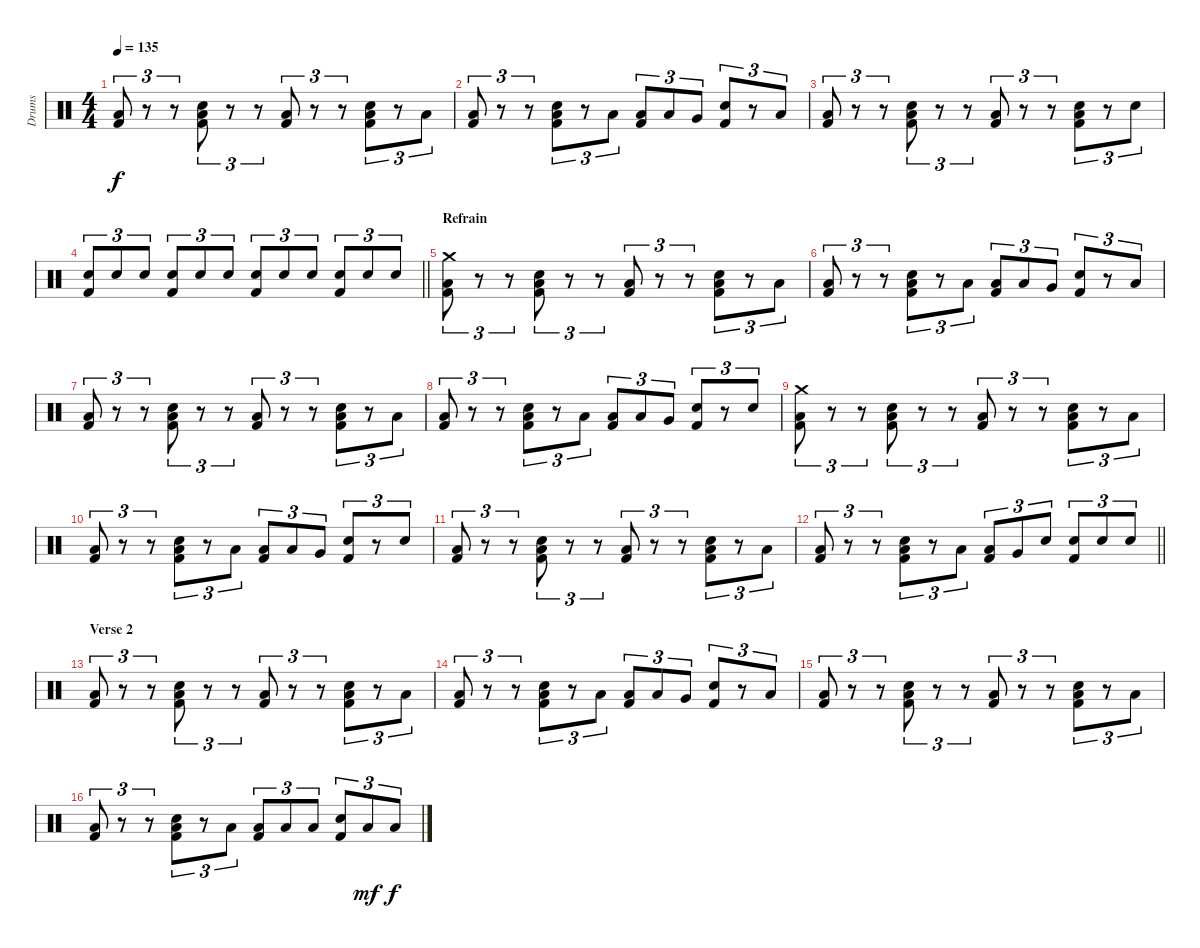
\track ("Drums" "Drums") {instrument percussion}
\staff {score}
\articulation defaults
\ts (4 4)
\tempo 135
\clef neutral
\ks c
("Low Floor Tom (hit)" "Kick (hit) 2").8{tu (3 2) dy f} r.8{tu (3 2)} r.8{tu (3 2)} ("Electric Snare (hit)" "Low Floor Tom (hit)" "Kick (hit) 2").8{tu (3 2)} r.8{tu (3 2)} r.8{tu (3 2)} ("Low Floor Tom (hit)" "Kick (hit) 2").8{tu (3 2)} r.8{tu (3 2)} r.8{tu (3 2)} ("Electric Snare (hit)" "Low Floor Tom (hit)" "Kick (hit) 2").8{tu (3 2)} r.8{tu (3 2)} "Low Floor Tom (hit)".8{tu (3 2)} |
("Low Floor Tom (hit)" "Kick (hit) 2").8{tu (3 2)} r.8{tu (3 2)} r.8{tu (3 2)} ("Electric Snare (hit)" "Low Floor Tom (hit)" "Kick (hit) 2").8{tu (3 2)} r.8{tu (3 2)} "Low Floor Tom (hit)".8{tu (3 2)} ("Low Floor Tom (hit)" "Kick (hit) 2").8{tu (3 2)} "Low Tom (hit)".8{tu (3 2)} "Very Low Tom (hit)".8{tu (3 2)} ("Electric Snare (hit)" "Kick (hit) 2").8{tu (3 2)} r.8{tu (3 2)} "Low Floor Tom (hit)".8{tu (3 2)} |
("Low Floor Tom (hit)" "Kick (hit) 2").8{tu (3 2)} r.8{tu (3 2)} r.8{tu (3 2)} ("Electric Snare (hit)" "Low Floor Tom (hit)" "Kick (hit) 2").8{tu (3 2)} r.8{tu (3 2)} r.8{tu (3 2)} ("Low Floor Tom (hit)" "Kick (hit) 2").8{tu (3 2)} r.8{tu (3 2)} r.8{tu (3 2)} ("Electric Snare (hit)" "Low Floor Tom (hit)" "Kick (hit) 2").8{tu (3 2)} r.8{tu (3 2)} "Electric Snare (hit)".8{tu (3 2)} |
\barLineRight lightlight
("Electric Snare (hit)" "Kick (hit) 2").8{tu (3 2)} "Electric Snare (hit)".8{tu (3 2)} "Electric Snare (hit)".8{tu (3 2)} ("Electric Snare (hit)" "Kick (hit) 2").8{tu (3 2)} "Electric Snare (hit)".8{tu (3 2)} "Electric Snare (hit)".8{tu (3 2)} ("Electric Snare (hit)" "Kick (hit) 2").8{tu (3 2)} "Electric Snare (hit)".8{tu (3 2)} "Electric Snare (hit)".8{tu (3 2)} ("Electric Snare (hit)" "Kick (hit) 2").8{tu (3 2)} "Electric Snare (hit)".8{tu (3 2)} "Electric Snare (hit)".8{tu (3 2)} |
\section ("" "Refrain")
("Crash medium (hit)" "Low Floor Tom (hit)" "Kick (hit) 2").8{tu (3 2)} r.8{tu (3 2)} r.8{tu (3 2)} ("Electric Snare (hit)" "Low Floor Tom (hit)" "Kick (hit) 2").8{tu (3 2)} r.8{tu (3 2)} r.8{tu (3 2)} ("Low Floor Tom (hit)" "Kick (hit) 2").8{tu (3 2)} r.8{tu (3 2)} r.8{tu (3 2)} ("Electric Snare (hit)" "Low Floor Tom (hit)" "Kick (hit) 2").8{tu (3 2)} r.8{tu (3 2)} "Low Floor Tom (hit)".8{tu (3 2)} |
("Low Floor Tom (hit)" "Kick (hit) 2").8{tu (3 2)} r.8{tu (3 2)} r.8{tu (3 2)} ("Electric Snare (hit)" "Low Floor Tom (hit)" "Kick (hit) 2").8{tu (3 2)} r.8{tu (3 2)} "Low Floor Tom (hit)".8{tu (3 2)} ("Low Floor Tom (hit)" "Kick (hit) 2").8{tu (3 2)} "Low Tom (hit)".8{tu (3 2)} "Very Low Tom (hit)".8{tu (3 2)} ("Electric Snare (hit)" "Kick (hit) 2").8{tu (3 2)} r.8{tu (3 2)} "Low Floor Tom (hit)".8{tu (3 2)} |
("Low Floor Tom (hit)" "Kick (hit) 2").8{tu (3 2)} r.8{tu (3 2)} r.8{tu (3 2)} ("Electric Snare (hit)" "Low Floor Tom (hit)" "Kick (hit) 2").8{tu (3 2)} r.8{tu (3 2)} r.8{tu (3 2)} ("Low Floor Tom (hit)" "Kick (hit) 2").8{tu (3 2)} r.8{tu (3 2)} r.8{tu (3 2)} ("Electric Snare (hit)" "Low Floor Tom (hit)" "Kick (hit) 2").8{tu (3 2)} r.8{tu (3 2)} "Low Floor Tom (hit)".8{tu (3 2)} |
("Low Floor Tom (hit)" "Kick (hit) 2").8{tu (3 2)} r.8{tu (3 2)} r.8{tu (3 2)} ("Electric Snare (hit)" "Low Floor Tom (hit)" "Kick (hit) 2").8{tu (3 2)} r.8{tu (3 2)} "Low Floor Tom (hit)".8{tu (3 2)} ("Low Floor Tom (hit)" "Kick (hit) 2").8{tu (3 2)} "Low Tom (hit)".8{tu (3 2)} "Very Low Tom (hit)".8{tu (3 2)} ("Electric Snare (hit)" "Kick (hit) 2").8{tu (3 2)} r.8{tu (3 2)} "Electric Snare (hit)".8{tu (3 2)} |
("Crash medium (hit)" "Low Floor Tom (hit)" "Kick (hit) 2").8{tu (3 2)} r.8{tu (3 2)} r.8{tu (3 2)} ("Electric Snare (hit)" "Low Floor Tom (hit)" "Kick (hit) 2").8{tu (3 2)} r.8{tu (3 2)} r.8{tu (3 2)} ("Low Floor Tom (hit)" "Kick (hit) 2").8{tu (3 2)} r.8{tu (3 2)} r.8{tu (3 2)} ("Electric Snare (hit)" "Low Floor Tom (hit)" "Kick (hit) 2").8{tu (3 2)} r.8{tu (3 2)} "Low Floor Tom (hit)".8{tu (3 2)} |
("Low Floor Tom (hit)" "Kick (hit) 2").8{tu (3 2)} r.8{tu (3 2)} r.8{tu (3 2)} ("Electric Snare (hit)" "Low Floor Tom (hit)" "Kick (hit) 2").8{tu (3 2)} r.8{tu (3 2)} "Low Floor Tom (hit)".8{tu (3 2)} ("Low Floor Tom (hit)" "Kick (hit) 2").8{tu (3 2)} "Low Tom (hit)".8{tu (3 2)} "Very Low Tom (hit)".8{tu (3 2)} ("Electric Snare (hit)" "Kick (hit) 2").8{tu (3 2)} r.8{tu (3 2)} "Electric Snare (hit)".8{tu (3 2)} |
("Low Floor Tom (hit)" "Kick (hit) 2").8{tu (3 2)} r.8{tu (3 2)} r.8{tu (3 2)} ("Electric Snare (hit)" "Low Floor Tom (hit)" "Kick (hit) 2").8{tu (3 2)} r.8{tu (3 2)} r.8{tu (3 2)} ("Low Floor Tom (hit)" "Kick (hit) 2").8{tu (3 2)} r.8{tu (3 2)} r.8{tu (3 2)} ("Electric Snare (hit)" "Low Floor Tom (hit)" "Kick (hit) 2").8{tu (3 2)} r.8{tu (3 2)} "Low Floor Tom (hit)".8{tu (3 2)} |
\barLineRight lightlight
("Low Floor Tom (hit)" "Kick (hit) 2").8{tu (3 2)} r.8{tu (3 2)} r.8{tu (3 2)} ("Electric Snare (hit)" "Low Floor Tom (hit)" "Kick (hit) 2").8{tu (3 2)} r.8{tu (3 2)} "Low Floor Tom (hit)".8{tu (3 2)} ("Low Tom (hit)" "Kick (hit) 2").8{tu (3 2)} "Very Low Tom (hit)".8{tu (3 2)} "Electric Snare (hit)".8{tu (3 2)} ("Electric Snare (hit)" "Kick (hit) 2").8{tu (3 2)} "Electric Snare (hit)".8{tu (3 2)} "Electric Snare (hit)".8{tu (3 2)} |
\section ("" "Verse 2")
("Low Floor Tom (hit)" "Kick (hit) 2").8{tu (3 2)} r.8{tu (3 2)} r.8{tu (3 2)} ("Electric Snare (hit)" "Low Floor Tom (hit)" "Kick (hit) 2").8{tu (3 2)} r.8{tu (3 2)} r.8{tu (3 2)} ("Low Floor Tom (hit)" "Kick (hit) 2").8{tu (3 2)} r.8{tu (3 2)} r.8{tu (3 2)} ("Electric Snare (hit)" "Low Floor Tom (hit)" "Kick (hit) 2").8{tu (3 2)} r.8{tu (3 2)} "Low Floor Tom (hit)".8{tu (3 2)} |
("Low Floor Tom (hit)" "Kick (hit) 2").8{tu (3 2)} r.8{tu (3 2)} r.8{tu (3 2)} ("Electric Snare (hit)" "Low Floor Tom (hit)" "Kick (hit) 2").8{tu (3 2)} r.8{tu (3 2)} "Low Floor Tom (hit)".8{tu (3 2)} ("Low Floor Tom (hit)" "Kick (hit) 2").8{tu (3 2)} "Low Tom (hit)".8{tu (3 2)} "Very Low Tom (hit)".8{tu (3 2)} ("Electric Snare (hit)" "Kick (hit) 2").8{tu (3 2)} r.8{tu (3 2)} "Low Floor Tom (hit)".8{tu (3 2)} |
("Low Floor Tom (hit)" "Kick (hit) 2").8{tu (3 2)} r.8{tu (3 2)} r.8{tu (3 2)} ("Electric Snare (hit)" "Low Floor Tom (hit)" "Kick (hit) 2").8{tu (3 2)} r.8{tu (3 2)} r.8{tu (3 2)} ("Low Floor Tom (hit)" "Kick (hit) 2").8{tu (3 2)} r.8{tu (3 2)} r.8{tu (3 2)} ("Electric Snare (hit)" "Low Floor Tom (hit)" "Kick (hit) 2").8{tu (3 2)} r.8{tu (3 2)} "Low Floor Tom (hit)".8{tu (3 2)} |
("Low Floor Tom (hit)" "Kick (hit) 2").8{tu (3 2)} r.8{tu (3 2)} r.8{tu (3 2)} ("Electric Snare (hit)" "Low Floor Tom (hit)" "Kick (hit) 2").8{tu (3 2)} r.8{tu (3 2)} "Low Floor Tom (hit)".8{tu (3 2)} ("Low Floor Tom (hit)" "Kick (hit) 2").8{tu (3 2)} "Low Floor Tom (hit)".8{tu (3 2)} "Low Floor Tom (hit)".8{tu (3 2)} ("Electric Snare (hit)" "Kick (hit) 2").8{tu (3 2)} "Low Floor Tom (hit)".8{tu (3 2) dy mf} "Low Floor Tom (hit)".8{tu (3 2) dy f}
